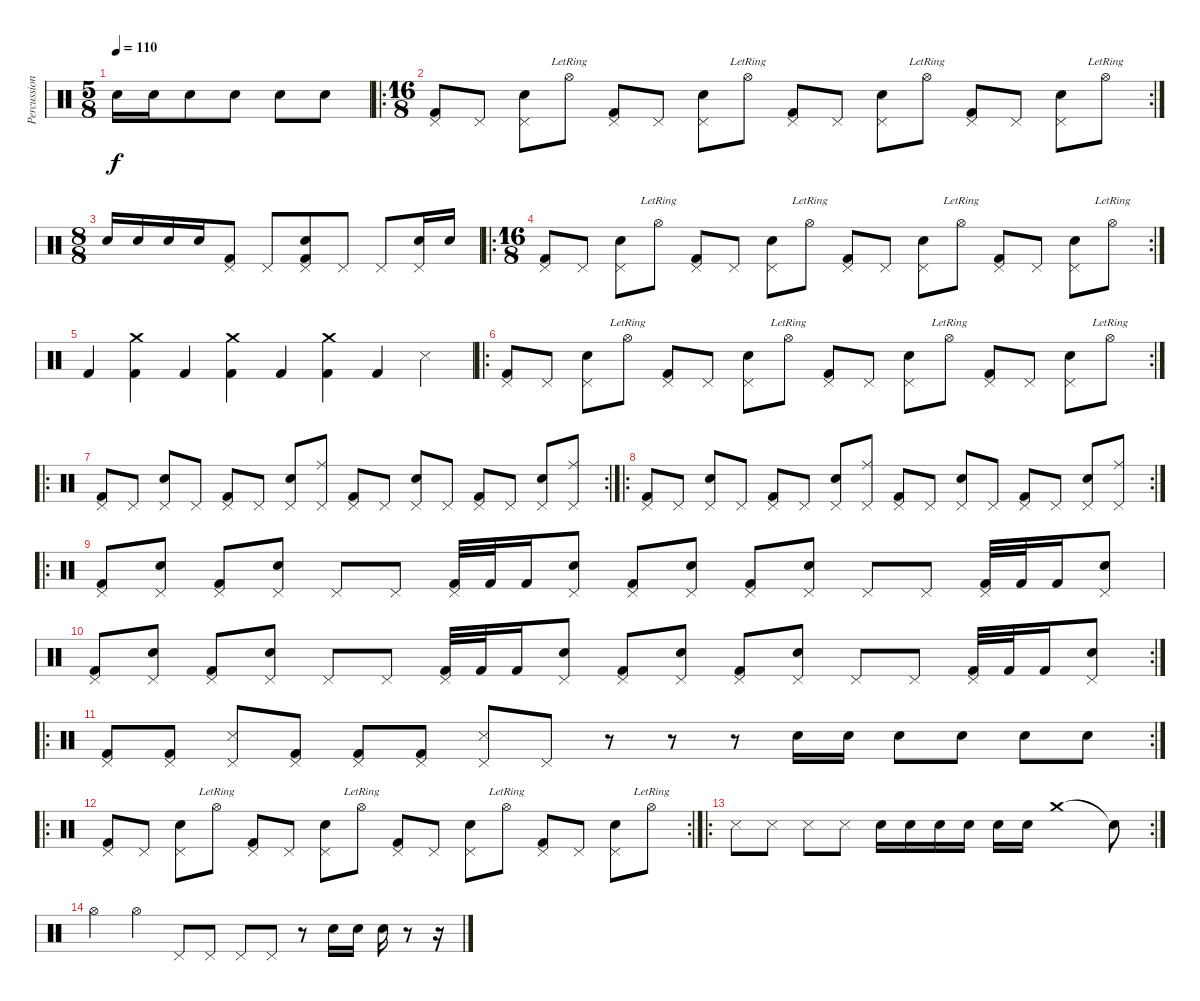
\track ("Percussion" "Percussion") {instrument percussion}
\staff {score}
\articulation defaults
\ts (5 8)
\tempo 110
\clef neutral
\ks c "Snare (hit) 2".16{dy f} "Snare (hit) 2".16 "Snare (hit) 2".8 "Snare (hit) 2".8 "Snare (hit) 2".8 "Snare (hit) 2".8
|
\ro
\rc 2
\ts (16 8)
("Pedal Hi-Hat (hit)" "Kick (hit) 2").8 "Pedal Hi-Hat (hit)".8 ("Pedal Hi-Hat (hit)" "Snare (hit) 2").8 "Hi-Hat (open)"{lr}.8 ("Pedal Hi-Hat (hit)" "Kick (hit) 2").8 "Pedal Hi-Hat (hit)".8 ("Pedal Hi-Hat (hit)" "Snare (hit) 2").8 "Hi-Hat (open)"{lr}.8 ("Pedal Hi-Hat (hit)" "Kick (hit) 2").8 "Pedal Hi-Hat (hit)".8 ("Pedal Hi-Hat (hit)" "Snare (hit) 2").8 "Hi-Hat (open)"{lr}.8 ("Pedal Hi-Hat (hit)" "Kick (hit) 2").8 "Pedal Hi-Hat (hit)".8 ("Pedal Hi-Hat (hit)" "Snare (hit) 2").8 "Hi-Hat (open)"{lr}.8 |
\ts (8 8)
"Snare (hit) 2".16 "Snare (hit) 2".16 "Snare (hit) 2".16 "Snare (hit) 2".16 ("Pedal Hi-Hat (hit)" "Kick (hit) 2").8 "Pedal Hi-Hat (hit)".8 ("Pedal Hi-Hat (hit)" "Kick (hit) 2" "Snare (hit) 2").8 "Pedal Hi-Hat (hit)".8 "Pedal Hi-Hat (hit)".8 ("Pedal Hi-Hat (hit)" "Snare (hit) 2").16 "Snare (hit) 2".16 |
\ro
\rc 2
\ts (16 8)
("Pedal Hi-Hat (hit)" "Kick (hit) 2").8 "Pedal Hi-Hat (hit)".8 ("Pedal Hi-Hat (hit)" "Snare (hit) 2").8 "Hi-Hat (open)"{lr}.8 ("Pedal Hi-Hat (hit)" "Kick (hit) 2").8 "Pedal Hi-Hat (hit)".8 ("Pedal Hi-Hat (hit)" "Snare (hit) 2").8 "Hi-Hat (open)"{lr}.8 ("Pedal Hi-Hat (hit)" "Kick (hit) 2").8 "Pedal Hi-Hat (hit)".8 ("Pedal Hi-Hat (hit)" "Snare (hit) 2").8 "Hi-Hat (open)"{lr}.8 ("Pedal Hi-Hat (hit)" "Kick (hit) 2").8 "Pedal Hi-Hat (hit)".8 ("Pedal Hi-Hat (hit)" "Snare (hit) 2").8 "Hi-Hat (open)"{lr}.8 |
"Kick (hit) 2".4 ("Crash medium (hit)" "Kick (hit) 2").4 "Kick (hit) 2".4 ("Crash medium (hit)" "Kick (hit) 2").4 "Kick (hit) 2".4 ("Crash medium (hit)" "Kick (hit) 2").4 "Kick (hit) 2".4 "Snare (side stick) 3".4 |
\ro
\rc 2
("Pedal Hi-Hat (hit)" "Kick (hit) 2").8 "Pedal Hi-Hat (hit)".8 ("Pedal Hi-Hat (hit)" "Snare (hit) 2").8 "Hi-Hat (open)"{lr}.8 ("Pedal Hi-Hat (hit)" "Kick (hit) 2").8 "Pedal Hi-Hat (hit)".8 ("Pedal Hi-Hat (hit)" "Snare (hit) 2").8 "Hi-Hat (open)"{lr}.8 ("Pedal Hi-Hat (hit)" "Kick (hit) 2").8 "Pedal Hi-Hat (hit)".8 ("Pedal Hi-Hat (hit)" "Snare (hit) 2").8 "Hi-Hat (open)"{lr}.8 ("Pedal Hi-Hat (hit)" "Kick (hit) 2").8 "Pedal Hi-Hat (hit)".8 ("Pedal Hi-Hat (hit)" "Snare (hit) 2").8 "Hi-Hat (open)"{lr}.8 |
\ro
\rc 2
("Pedal Hi-Hat (hit)" "Kick (hit) 2").8 "Pedal Hi-Hat (hit)".8 ("Pedal Hi-Hat (hit)" "Snare (hit) 2").8 "Pedal Hi-Hat (hit)".8 ("Pedal Hi-Hat (hit)" "Kick (hit) 2").8 "Pedal Hi-Hat (hit)".8 ("Pedal Hi-Hat (hit)" "Snare (hit) 2").8 ("Pedal Hi-Hat (hit)" "Ride (middle)").8 ("Pedal Hi-Hat (hit)" "Kick (hit) 2").8 "Pedal Hi-Hat (hit)".8 ("Pedal Hi-Hat (hit)" "Snare (hit) 2").8 "Pedal Hi-Hat (hit)".8 ("Pedal Hi-Hat (hit)" "Kick (hit) 2").8 "Pedal Hi-Hat (hit)".8 ("Pedal Hi-Hat (hit)" "Snare (hit) 2").8 ("Pedal Hi-Hat (hit)" "Ride (middle)").8 |
\ro
\rc 2
("Pedal Hi-Hat (hit)" "Kick (hit) 2").8 "Pedal Hi-Hat (hit)".8 ("Pedal Hi-Hat (hit)" "Snare (hit) 2").8 "Pedal Hi-Hat (hit)".8 ("Pedal Hi-Hat (hit)" "Kick (hit) 2").8 "Pedal Hi-Hat (hit)".8 ("Pedal Hi-Hat (hit)" "Snare (hit) 2").8 ("Pedal Hi-Hat (hit)" "Ride (middle)").8 ("Pedal Hi-Hat (hit)" "Kick (hit) 2").8 "Pedal Hi-Hat (hit)".8 ("Pedal Hi-Hat (hit)" "Snare (hit) 2").8 "Pedal Hi-Hat (hit)".8 ("Pedal Hi-Hat (hit)" "Kick (hit) 2").8 "Pedal Hi-Hat (hit)".8 ("Pedal Hi-Hat (hit)" "Snare (hit) 2").8 ("Pedal Hi-Hat (hit)" "Ride (middle)").8 |
\ro
("Kick (hit) 2" "Pedal Hi-Hat (hit)").8 ("Snare (hit) 2" "Pedal Hi-Hat (hit)").8 ("Kick (hit) 2" "Pedal Hi-Hat (hit)").8 ("Snare (hit) 2" "Pedal Hi-Hat (hit)").8 "Pedal Hi-Hat (hit)".8 "Pedal Hi-Hat (hit)".8 ("Kick (hit) 2" "Pedal Hi-Hat (hit)").32 "Kick (hit) 2".32 "Kick (hit) 2".16 ("Snare (hit) 2" "Pedal Hi-Hat (hit)").8 ("Kick (hit) 2" "Pedal Hi-Hat (hit)").8 ("Snare (hit) 2" "Pedal Hi-Hat (hit)").8 ("Kick (hit) 2" "Pedal Hi-Hat (hit)").8 ("Snare (hit) 2" "Pedal Hi-Hat (hit)").8 "Pedal Hi-Hat (hit)".8 "Pedal Hi-Hat (hit)".8 ("Kick (hit) 2" "Pedal Hi-Hat (hit)").32 "Kick (hit) 2".32 "Kick (hit) 2".16 ("Snare (hit) 2" "Pedal Hi-Hat (hit)").8 |
\rc 2
("Kick (hit) 2" "Pedal Hi-Hat (hit)").8 ("Snare (hit) 2" "Pedal Hi-Hat (hit)").8 ("Kick (hit) 2" "Pedal Hi-Hat (hit)").8 ("Snare (hit) 2" "Pedal Hi-Hat (hit)").8 "Pedal Hi-Hat (hit)".8 "Pedal Hi-Hat (hit)".8 ("Kick (hit) 2" "Pedal Hi-Hat (hit)").32 "Kick (hit) 2".32 "Kick (hit) 2".16 ("Snare (hit) 2" "Pedal Hi-Hat (hit)").8 ("Kick (hit) 2" "Pedal Hi-Hat (hit)").8 ("Snare (hit) 2" "Pedal Hi-Hat (hit)").8 ("Kick (hit) 2" "Pedal Hi-Hat (hit)").8 ("Snare (hit) 2" "Pedal Hi-Hat (hit)").8 "Pedal Hi-Hat (hit)".8 "Pedal Hi-Hat (hit)".8 ("Kick (hit) 2" "Pedal Hi-Hat (hit)").32 "Kick (hit) 2".32 "Kick (hit) 2".16 ("Snare (hit) 2" "Pedal Hi-Hat (hit)").8 |
\ro
\rc 2
("Kick (hit) 2" "Pedal Hi-Hat (hit)").8 ("Kick (hit) 2" "Pedal Hi-Hat (hit)").8 ("Snare (side stick) 3" "Pedal Hi-Hat (hit)").8 ("Kick (hit) 2" "Pedal Hi-Hat (hit)").8 ("Kick (hit) 2" "Pedal Hi-Hat (hit)").8 ("Kick (hit) 2" "Pedal Hi-Hat (hit)").8 ("Snare (side stick) 3" "Pedal Hi-Hat (hit)").8 "Pedal Hi-Hat (hit)".8 r.8 r.8 r.8 "Snare (hit) 2".16 "Snare (hit) 2".16 "Snare (hit) 2".8 "Snare (hit) 2".8 "Snare (hit) 2".8 "Snare (hit) 2".8 |
\ro
\rc 2
("Pedal Hi-Hat (hit)" "Kick (hit) 2").8 "Pedal Hi-Hat (hit)".8 ("Pedal Hi-Hat (hit)" "Snare (hit) 2").8 "Hi-Hat (open)"{lr}.8 ("Pedal Hi-Hat (hit)" "Kick (hit) 2").8 "Pedal Hi-Hat (hit)".8 ("Pedal Hi-Hat (hit)" "Snare (hit) 2").8 "Hi-Hat (open)"{lr}.8 ("Pedal Hi-Hat (hit)" "Kick (hit) 2").8 "Pedal Hi-Hat (hit)".8 ("Pedal Hi-Hat (hit)" "Snare (hit) 2").8 "Hi-Hat (open)"{lr}.8 ("Pedal Hi-Hat (hit)" "Kick (hit) 2").8 "Pedal Hi-Hat (hit)".8 ("Pedal Hi-Hat (hit)" "Snare (hit) 2").8 "Hi-Hat (open)"{lr}.8 |
\ro
\rc 2 "Snare (side stick) 3".8 "Snare (side stick) 3".8 "Snare (side stick) 3".8 "Snare (side stick) 3".8 "Snare (hit) 2".16 "Snare (hit) 2".16 "Snare (hit) 2".16 "Snare (hit) 2".16 "Snare (hit) 2".16 "Snare (hit) 2".16 "Crash medium (hit)".1 "Snare (hit)"{t}.8
|
"Hi-Hat (open)".2 "Hi-Hat (open)".2 "Pedal Hi-Hat (hit)".8 "Pedal Hi-Hat (hit)".8 "Pedal Hi-Hat (hit)".8 "Pedal Hi-Hat (hit)".8 r.8 "Snare (hit) 2".16 "Snare (hit) 2".16 "Snare (hit) 2".16 r.8 r.16
